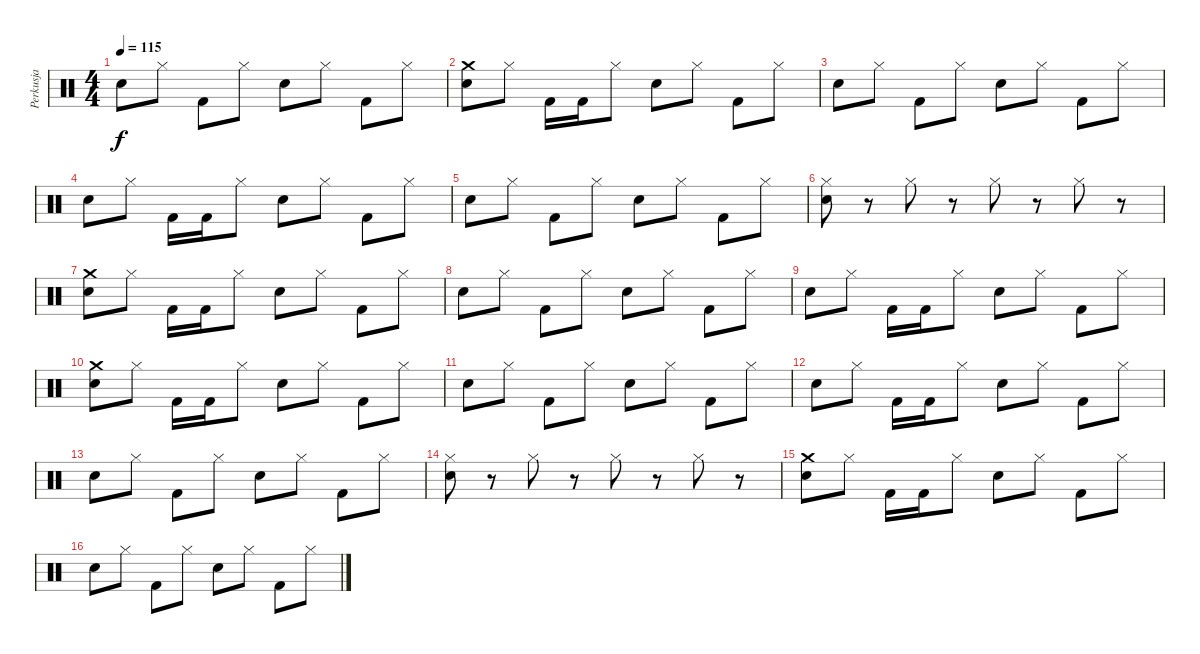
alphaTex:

\track ("Perkusja" "Perkusja") {instrument percussion}
\staff {score}
\articulation defaults
\ts (4 4)
\tempo 115
\clef neutral
\ks c "Snare (hit) 2".8{dy f} "Hi-Hat (closed)".8 "Kick (hit) 2".8 "Hi-Hat (closed)".8 "Snare (hit) 2".8 "Hi-Hat (closed)".8 "Kick (hit) 2".8 "Hi-Hat (closed)".8
|
("Snare (hit) 2" "Crash medium (hit)").8 "Hi-Hat (closed)".8 "Kick (hit) 2".16 "Kick (hit) 2".16 "Hi-Hat (closed)".8 "Snare (hit) 2".8 "Hi-Hat (closed)".8 "Kick (hit) 2".8 "Hi-Hat (closed)".8 |
"Snare (hit) 2".8 "Hi-Hat (closed)".8 "Kick (hit) 2".8 "Hi-Hat (closed)".8 "Snare (hit) 2".8 "Hi-Hat (closed)".8 "Kick (hit) 2".8 "Hi-Hat (closed)".8 |
"Snare (hit) 2".8 "Hi-Hat (closed)".8 "Kick (hit) 2".16 "Kick (hit) 2".16 "Hi-Hat (closed)".8 "Snare (hit) 2".8 "Hi-Hat (closed)".8 "Kick (hit) 2".8 "Hi-Hat (closed)".8 |
"Snare (hit) 2".8 "Hi-Hat (closed)".8 "Kick (hit) 2".8 "Hi-Hat (closed)".8 "Snare (hit) 2".8 "Hi-Hat (closed)".8 "Kick (hit) 2".8 "Hi-Hat (closed)".8 |
("Hi-Hat (closed)" "Snare (hit) 2").8 r.8 "Hi-Hat (closed)".8 r.8 "Hi-Hat (closed)".8 r.8 "Hi-Hat (closed)".8 r.8 |
("Snare (hit) 2" "Crash medium (hit)").8 "Hi-Hat (closed)".8 "Kick (hit) 2".16 "Kick (hit) 2".16 "Hi-Hat (closed)".8 "Snare (hit) 2".8 "Hi-Hat (closed)".8 "Kick (hit) 2".8 "Hi-Hat (closed)".8 |
"Snare (hit) 2".8 "Hi-Hat (closed)".8 "Kick (hit) 2".8 "Hi-Hat (closed)".8 "Snare (hit) 2".8 "Hi-Hat (closed)".8 "Kick (hit) 2".8 "Hi-Hat (closed)".8 |
"Snare (hit) 2".8 "Hi-Hat (closed)".8 "Kick (hit) 2".16 "Kick (hit) 2".16 "Hi-Hat (closed)".8 "Snare (hit) 2".8 "Hi-Hat (closed)".8 "Kick (hit) 2".8 "Hi-Hat (closed)".8 |
("Snare (hit) 2" "Crash medium (hit)").8 "Hi-Hat (closed)".8 "Kick (hit) 2".16 "Kick (hit) 2".16 "Hi-Hat (closed)".8 "Snare (hit) 2".8 "Hi-Hat (closed)".8 "Kick (hit) 2".8 "Hi-Hat (closed)".8 |
"Snare (hit) 2".8 "Hi-Hat (closed)".8 "Kick (hit) 2".8 "Hi-Hat (closed)".8 "Snare (hit) 2".8 "Hi-Hat (closed)".8 "Kick (hit) 2".8 "Hi-Hat (closed)".8 |
"Snare (hit) 2".8 "Hi-Hat (closed)".8 "Kick (hit) 2".16 "Kick (hit) 2".16 "Hi-Hat (closed)".8 "Snare (hit) 2".8 "Hi-Hat (closed)".8 "Kick (hit) 2".8 "Hi-Hat (closed)".8 |
"Snare (hit) 2".8 "Hi-Hat (closed)".8 "Kick (hit) 2".8 "Hi-Hat (closed)".8 "Snare (hit) 2".8 "Hi-Hat (closed)".8 "Kick (hit) 2".8 "Hi-Hat (closed)".8 |
("Hi-Hat (closed)" "Snare (hit) 2").8 r.8 "Hi-Hat (closed)".8 r.8 "Hi-Hat (closed)".8 r.8 "Hi-Hat (closed)".8 r.8 |
("Snare (hit) 2" "Crash medium (hit)").8 "Hi-Hat (closed)".8 "Kick (hit) 2".16 "Kick (hit) 2".16 "Hi-Hat (closed)".8 "Snare (hit) 2".8 "Hi-Hat (closed)".8 "Kick (hit) 2".8 "Hi-Hat (closed)".8 |
"Snare (hit) 2".8 "Hi-Hat (closed)".8 "Kick (hit) 2".8 "Hi-Hat (closed)".8 "Snare (hit) 2".8 "Hi-Hat (closed)".8 "Kick (hit) 2".8 "Hi-Hat (closed)".8
